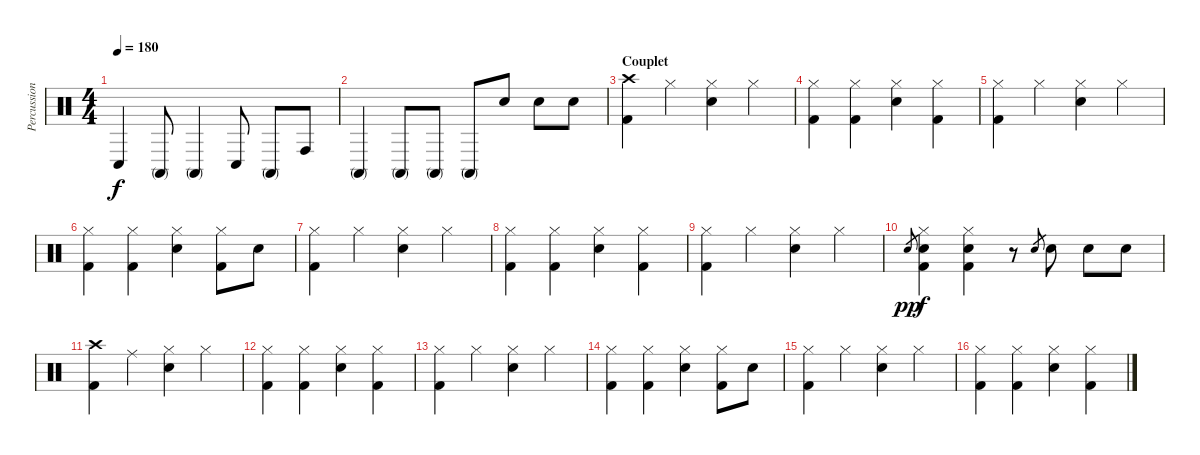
\track ("Percussions" "Percussion") {instrument percussion}
\staff {score}
\articulation defaults
\ts (4 4)
\tempo 180
\clef neutral
\ks c "Conga low (hit)".4{dy f} "Conga high (mute)".8 "Conga high (mute)".4 "Conga low (hit)".8 "Conga high (mute)".8 "Conga high (hit)".8
|
"Conga high (mute)".4 "Conga high (mute)".8 "Conga high (mute)".8 "Conga high (mute)".8 "Snare (hit) 2".8 "Snare (hit) 2".8 "Snare (hit) 2".8 |
\section ("" "Couplet")
("Crash high (hit)" "Kick (hit) 2").4 "Hi-Hat (closed)".4 ("Hi-Hat (closed)" "Snare (hit) 2").4 "Hi-Hat (closed)".4 |
("Hi-Hat (closed)" "Kick (hit) 2").4 ("Hi-Hat (closed)" "Kick (hit) 2").4 ("Hi-Hat (closed)" "Snare (hit) 2").4 ("Hi-Hat (closed)" "Kick (hit) 2").4 |
("Hi-Hat (closed)" "Kick (hit) 2").4 "Hi-Hat (closed)".4 ("Hi-Hat (closed)" "Snare (hit) 2").4 "Hi-Hat (closed)".4 |
("Hi-Hat (closed)" "Kick (hit) 2").4 ("Hi-Hat (closed)" "Kick (hit) 2").4 ("Hi-Hat (closed)" "Snare (hit) 2").4 ("Hi-Hat (closed)" "Kick (hit) 2").8 "Snare (hit) 2".8 |
("Hi-Hat (closed)" "Kick (hit) 2").4 "Hi-Hat (closed)".4 ("Hi-Hat (closed)" "Snare (hit) 2").4 "Hi-Hat (closed)".4 |
("Hi-Hat (closed)" "Kick (hit) 2").4 ("Hi-Hat (closed)" "Kick (hit) 2").4 ("Hi-Hat (closed)" "Snare (hit) 2").4 ("Hi-Hat (closed)" "Kick (hit) 2").4 |
("Hi-Hat (closed)" "Kick (hit) 2").4 "Hi-Hat (closed)".4 ("Hi-Hat (closed)" "Snare (hit) 2").4 "Hi-Hat (closed)".4 |
"Snare (hit) 2".8{gr dy pp} ("Hi-Hat (closed)" "Snare (hit) 2" "Kick (hit) 2").4{dy f} ("Hi-Hat (closed)" "Snare (hit) 2" "Kick (hit) 2").4 r.8 "Snare (hit) 2".8{gr} "Snare (hit) 2".8 "Snare (hit) 2".8 "Snare (hit) 2".8 |
("Crash high (hit)" "Kick (hit) 2").4 "Ride (middle)".4 ("Hi-Hat (closed)" "Snare (hit) 2").4 "Hi-Hat (closed)".4 |
("Hi-Hat (closed)" "Kick (hit) 2").4 ("Hi-Hat (closed)" "Kick (hit) 2").4 ("Hi-Hat (closed)" "Snare (hit) 2").4 ("Hi-Hat (closed)" "Kick (hit) 2").4 |
("Hi-Hat (closed)" "Kick (hit) 2").4 "Hi-Hat (closed)".4 ("Hi-Hat (closed)" "Snare (hit) 2").4 "Hi-Hat (closed)".4 |
("Hi-Hat (closed)" "Kick (hit) 2").4 ("Hi-Hat (closed)" "Kick (hit) 2").4 ("Hi-Hat (closed)" "Snare (hit) 2").4 ("Hi-Hat (closed)" "Kick (hit) 2").8 "Snare (hit) 2".8 |
("Hi-Hat (closed)" "Kick (hit) 2").4 "Hi-Hat (closed)".4 ("Hi-Hat (closed)" "Snare (hit) 2").4 "Hi-Hat (closed)".4 |
("Hi-Hat (closed)" "Kick (hit) 2").4 ("Hi-Hat (closed)" "Kick (hit) 2").4 ("Hi-Hat (closed)" "Snare (hit) 2").4 ("Hi-Hat (closed)" "Kick (hit) 2").4
